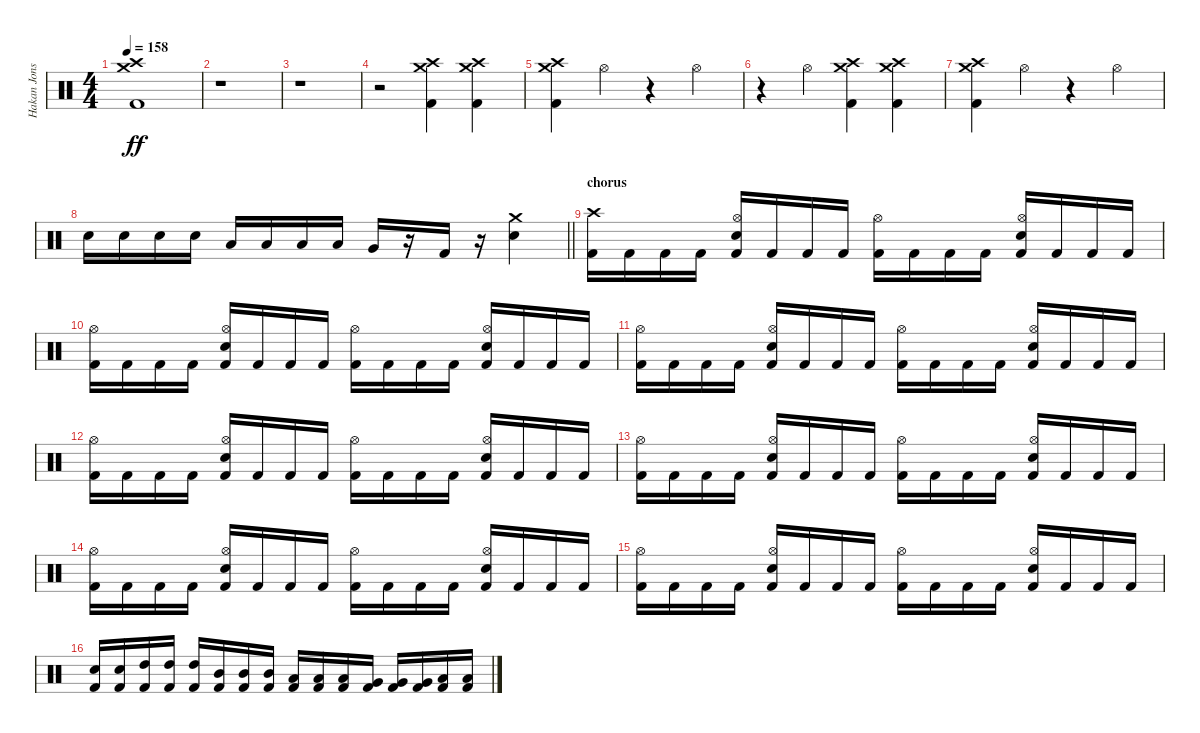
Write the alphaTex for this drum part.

\track ("Hakan Jonsson" "Hakan Jons") {instrument percussion}
\staff {score}
\articulation defaults
\ts (4 4)
\tempo 158
\clef neutral
\ks c
("Crash medium (hit)" "Crash high (hit)" "Kick (hit) 2").1{dy ff} |
r.1 |
r.1 |
r.2 ("Crash medium (hit)" "Crash high (hit)" "Kick (hit) 2").4 ("Crash medium (hit)" "Crash high (hit)" "Kick (hit) 2").4 |
("Crash medium (hit)" "Crash high (hit)" "Kick (hit) 2").4 "Hi-Hat (open)".4 r.4 "Hi-Hat (open)".4 |
r.4 "Hi-Hat (open)".4 ("Crash medium (hit)" "Crash high (hit)" "Kick (hit) 2").4 ("Crash medium (hit)" "Crash high (hit)" "Kick (hit) 2").4 |
("Crash medium (hit)" "Crash high (hit)" "Kick (hit) 2").4 "Hi-Hat (open)".4 r.4 "Hi-Hat (open)".4 |
\barLineRight lightlight "Electric Snare (hit)".16 "Electric Snare (hit)".16 "Electric Snare (hit)".16 "Electric Snare (hit)".16 "Low Tom (hit)".16 "Low Tom (hit)".16 "Low Tom (hit)".16 "Low Tom (hit)".16 "Very Low Tom (hit)".16
r.16 "Kick (hit) 2".16 r.16 ("Crash medium (hit)" "Electric Snare (hit)").4 |
\section ("" "chorus")
("Crash high (hit)" "Kick (hit) 2").16 "Kick (hit) 2".16 "Kick (hit) 2".16 "Kick (hit) 2".16 ("Hi-Hat (open)" "Electric Snare (hit)" "Kick (hit) 2").16 "Kick (hit) 2".16 "Kick (hit) 2".16 "Kick (hit) 2".16 ("Hi-Hat (open)" "Kick (hit) 2").16 "Kick (hit) 2".16 "Kick (hit) 2".16 "Kick (hit) 2".16 ("Hi-Hat (open)" "Electric Snare (hit)" "Kick (hit) 2").16 "Kick (hit) 2".16 "Kick (hit) 2".16 "Kick (hit) 2".16 |
("Hi-Hat (open)" "Kick (hit) 2").16 "Kick (hit) 2".16 "Kick (hit) 2".16 "Kick (hit) 2".16 ("Hi-Hat (open)" "Electric Snare (hit)" "Kick (hit) 2").16 "Kick (hit) 2".16 "Kick (hit) 2".16 "Kick (hit) 2".16 ("Hi-Hat (open)" "Kick (hit) 2").16 "Kick (hit) 2".16 "Kick (hit) 2".16 "Kick (hit) 2".16 ("Hi-Hat (open)" "Electric Snare (hit)" "Kick (hit) 2").16 "Kick (hit) 2".16 "Kick (hit) 2".16 "Kick (hit) 2".16 |
("Hi-Hat (open)" "Kick (hit) 2").16 "Kick (hit) 2".16 "Kick (hit) 2".16 "Kick (hit) 2".16 ("Hi-Hat (open)" "Electric Snare (hit)" "Kick (hit) 2").16 "Kick (hit) 2".16 "Kick (hit) 2".16 "Kick (hit) 2".16 ("Hi-Hat (open)" "Kick (hit) 2").16 "Kick (hit) 2".16 "Kick (hit) 2".16 "Kick (hit) 2".16 ("Hi-Hat (open)" "Electric Snare (hit)" "Kick (hit) 2").16 "Kick (hit) 2".16 "Kick (hit) 2".16 "Kick (hit) 2".16 |
("Hi-Hat (open)" "Kick (hit) 2").16 "Kick (hit) 2".16 "Kick (hit) 2".16 "Kick (hit) 2".16 ("Hi-Hat (open)" "Electric Snare (hit)" "Kick (hit) 2").16 "Kick (hit) 2".16 "Kick (hit) 2".16 "Kick (hit) 2".16 ("Hi-Hat (open)" "Kick (hit) 2").16 "Kick (hit) 2".16 "Kick (hit) 2".16 "Kick (hit) 2".16 ("Hi-Hat (open)" "Electric Snare (hit)" "Kick (hit) 2").16 "Kick (hit) 2".16 "Kick (hit) 2".16 "Kick (hit) 2".16 |
("Hi-Hat (open)" "Kick (hit) 2").16 "Kick (hit) 2".16 "Kick (hit) 2".16 "Kick (hit) 2".16 ("Hi-Hat (open)" "Electric Snare (hit)" "Kick (hit) 2").16 "Kick (hit) 2".16 "Kick (hit) 2".16 "Kick (hit) 2".16 ("Hi-Hat (open)" "Kick (hit) 2").16 "Kick (hit) 2".16 "Kick (hit) 2".16 "Kick (hit) 2".16 ("Hi-Hat (open)" "Electric Snare (hit)" "Kick (hit) 2").16 "Kick (hit) 2".16 "Kick (hit) 2".16 "Kick (hit) 2".16 |
("Hi-Hat (open)" "Kick (hit) 2").16 "Kick (hit) 2".16 "Kick (hit) 2".16 "Kick (hit) 2".16 ("Hi-Hat (open)" "Electric Snare (hit)" "Kick (hit) 2").16 "Kick (hit) 2".16 "Kick (hit) 2".16 "Kick (hit) 2".16 ("Hi-Hat (open)" "Kick (hit) 2").16 "Kick (hit) 2".16 "Kick (hit) 2".16 "Kick (hit) 2".16 ("Hi-Hat (open)" "Electric Snare (hit)" "Kick (hit) 2").16 "Kick (hit) 2".16 "Kick (hit) 2".16 "Kick (hit) 2".16 |
("Hi-Hat (open)" "Kick (hit) 2").16 "Kick (hit) 2".16 "Kick (hit) 2".16 "Kick (hit) 2".16 ("Hi-Hat (open)" "Electric Snare (hit)" "Kick (hit) 2").16 "Kick (hit) 2".16 "Kick (hit) 2".16 "Kick (hit) 2".16 ("Hi-Hat (open)" "Kick (hit) 2").16 "Kick (hit) 2".16 "Kick (hit) 2".16 "Kick (hit) 2".16 ("Hi-Hat (open)" "Electric Snare (hit)" "Kick (hit) 2").16 "Kick (hit) 2".16 "Kick (hit) 2".16 "Kick (hit) 2".16 |
("Electric Snare (hit)" "Kick (hit) 2").16 ("Electric Snare (hit)" "Kick (hit) 2").16 ("High Tom (hit)" "Kick (hit) 2").16 ("High Tom (hit)" "Kick (hit) 2").16 ("High Tom (hit)" "Kick (hit) 2").16 ("Mid Tom (hit)" "Kick (hit) 2").16 ("Mid Tom (hit)" "Kick (hit) 2").16 ("Mid Tom (hit)" "Kick (hit) 2").16 ("Low Tom (hit)" "Kick (hit) 2").16 ("Low Tom (hit)" "Kick (hit) 2").16 ("Low Tom (hit)" "Kick (hit) 2").16 ("Very Low Tom (hit)" "Kick (hit) 2").16 ("Very Low Tom (hit)" "Kick (hit) 2").16 ("Very Low Tom (hit)" "Kick (hit) 2").16 ("Low Floor Tom (hit)" "Kick (hit) 2").16 ("Low Floor Tom (hit)" "Kick (hit) 2").16
